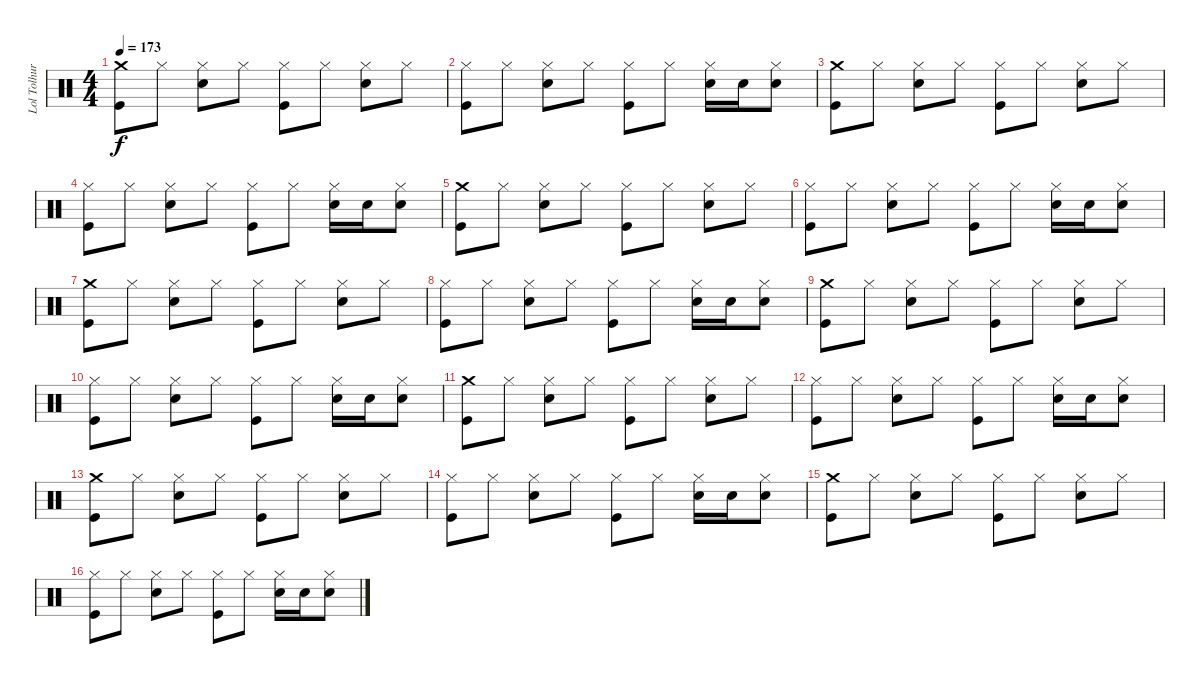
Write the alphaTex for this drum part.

\track ("Lol Tolhurst" "Lol Tolhur") {instrument percussion}
\staff {score}
\articulation defaults
\ts (4 4)
\tempo 173
\clef neutral
\ks c
("Crash medium (hit)" "Kick (hit)").8{dy f} "Hi-Hat (closed)".8 ("Hi-Hat (closed)" "Snare (hit) 2").8 "Hi-Hat (closed)".8 ("Hi-Hat (closed)" "Kick (hit)").8 "Hi-Hat (closed)".8 ("Hi-Hat (closed)" "Snare (hit) 2").8 "Hi-Hat (closed)".8 |
("Hi-Hat (closed)" "Kick (hit)").8 "Hi-Hat (closed)".8 ("Hi-Hat (closed)" "Snare (hit) 2").8 "Hi-Hat (closed)".8 ("Hi-Hat (closed)" "Kick (hit)").8 "Hi-Hat (closed)".8 ("Hi-Hat (closed)" "Snare (hit) 2").16 "Snare (hit) 2".16 ("Hi-Hat (closed)" "Snare (hit) 2").8 |
("Crash medium (hit)" "Kick (hit)").8 "Hi-Hat (closed)".8 ("Hi-Hat (closed)" "Snare (hit) 2").8 "Hi-Hat (closed)".8 ("Hi-Hat (closed)" "Kick (hit)").8 "Hi-Hat (closed)".8 ("Hi-Hat (closed)" "Snare (hit) 2").8 "Hi-Hat (closed)".8 |
("Hi-Hat (closed)" "Kick (hit)").8 "Hi-Hat (closed)".8 ("Hi-Hat (closed)" "Snare (hit) 2").8 "Hi-Hat (closed)".8 ("Hi-Hat (closed)" "Kick (hit)").8 "Hi-Hat (closed)".8 ("Hi-Hat (closed)" "Snare (hit) 2").16 "Snare (hit) 2".16 ("Hi-Hat (closed)" "Snare (hit) 2").8 |
("Crash medium (hit)" "Kick (hit)").8 "Hi-Hat (closed)".8 ("Hi-Hat (closed)" "Snare (hit) 2").8 "Hi-Hat (closed)".8 ("Hi-Hat (closed)" "Kick (hit)").8 "Hi-Hat (closed)".8 ("Hi-Hat (closed)" "Snare (hit) 2").8 "Hi-Hat (closed)".8 |
("Hi-Hat (closed)" "Kick (hit)").8 "Hi-Hat (closed)".8 ("Hi-Hat (closed)" "Snare (hit) 2").8 "Hi-Hat (closed)".8 ("Hi-Hat (closed)" "Kick (hit)").8 "Hi-Hat (closed)".8 ("Hi-Hat (closed)" "Snare (hit) 2").16 "Snare (hit) 2".16 ("Hi-Hat (closed)" "Snare (hit) 2").8 |
("Crash medium (hit)" "Kick (hit)").8 "Hi-Hat (closed)".8 ("Hi-Hat (closed)" "Snare (hit) 2").8 "Hi-Hat (closed)".8 ("Hi-Hat (closed)" "Kick (hit)").8 "Hi-Hat (closed)".8 ("Hi-Hat (closed)" "Snare (hit) 2").8 "Hi-Hat (closed)".8 |
("Hi-Hat (closed)" "Kick (hit)").8 "Hi-Hat (closed)".8 ("Hi-Hat (closed)" "Snare (hit) 2").8 "Hi-Hat (closed)".8 ("Hi-Hat (closed)" "Kick (hit)").8 "Hi-Hat (closed)".8 ("Hi-Hat (closed)" "Snare (hit) 2").16 "Snare (hit) 2".16 ("Hi-Hat (closed)" "Snare (hit) 2").8 |
("Crash medium (hit)" "Kick (hit)").8 "Hi-Hat (closed)".8 ("Hi-Hat (closed)" "Snare (hit) 2").8 "Hi-Hat (closed)".8 ("Hi-Hat (closed)" "Kick (hit)").8 "Hi-Hat (closed)".8 ("Hi-Hat (closed)" "Snare (hit) 2").8 "Hi-Hat (closed)".8 |
("Hi-Hat (closed)" "Kick (hit)").8 "Hi-Hat (closed)".8 ("Hi-Hat (closed)" "Snare (hit) 2").8 "Hi-Hat (closed)".8 ("Hi-Hat (closed)" "Kick (hit)").8 "Hi-Hat (closed)".8 ("Hi-Hat (closed)" "Snare (hit) 2").16 "Snare (hit) 2".16 ("Hi-Hat (closed)" "Snare (hit) 2").8 |
("Crash medium (hit)" "Kick (hit)").8 "Hi-Hat (closed)".8 ("Hi-Hat (closed)" "Snare (hit) 2").8 "Hi-Hat (closed)".8 ("Hi-Hat (closed)" "Kick (hit)").8 "Hi-Hat (closed)".8 ("Hi-Hat (closed)" "Snare (hit) 2").8 "Hi-Hat (closed)".8 |
("Hi-Hat (closed)" "Kick (hit)").8 "Hi-Hat (closed)".8 ("Hi-Hat (closed)" "Snare (hit) 2").8 "Hi-Hat (closed)".8 ("Hi-Hat (closed)" "Kick (hit)").8 "Hi-Hat (closed)".8 ("Hi-Hat (closed)" "Snare (hit) 2").16 "Snare (hit) 2".16 ("Hi-Hat (closed)" "Snare (hit) 2").8 |
("Crash medium (hit)" "Kick (hit)").8 "Hi-Hat (closed)".8 ("Hi-Hat (closed)" "Snare (hit) 2").8 "Hi-Hat (closed)".8 ("Hi-Hat (closed)" "Kick (hit)").8 "Hi-Hat (closed)".8 ("Hi-Hat (closed)" "Snare (hit) 2").8 "Hi-Hat (closed)".8 |
("Hi-Hat (closed)" "Kick (hit)").8 "Hi-Hat (closed)".8 ("Hi-Hat (closed)" "Snare (hit) 2").8 "Hi-Hat (closed)".8 ("Hi-Hat (closed)" "Kick (hit)").8 "Hi-Hat (closed)".8 ("Hi-Hat (closed)" "Snare (hit) 2").16 "Snare (hit) 2".16 ("Hi-Hat (closed)" "Snare (hit) 2").8 |
("Crash medium (hit)" "Kick (hit)").8 "Hi-Hat (closed)".8 ("Hi-Hat (closed)" "Snare (hit) 2").8 "Hi-Hat (closed)".8 ("Hi-Hat (closed)" "Kick (hit)").8 "Hi-Hat (closed)".8 ("Hi-Hat (closed)" "Snare (hit) 2").8 "Hi-Hat (closed)".8 |
("Hi-Hat (closed)" "Kick (hit)").8 "Hi-Hat (closed)".8 ("Hi-Hat (closed)" "Snare (hit) 2").8 "Hi-Hat (closed)".8 ("Hi-Hat (closed)" "Kick (hit)").8 "Hi-Hat (closed)".8 ("Hi-Hat (closed)" "Snare (hit) 2").16 "Snare (hit) 2".16 ("Hi-Hat (closed)" "Snare (hit) 2").8
